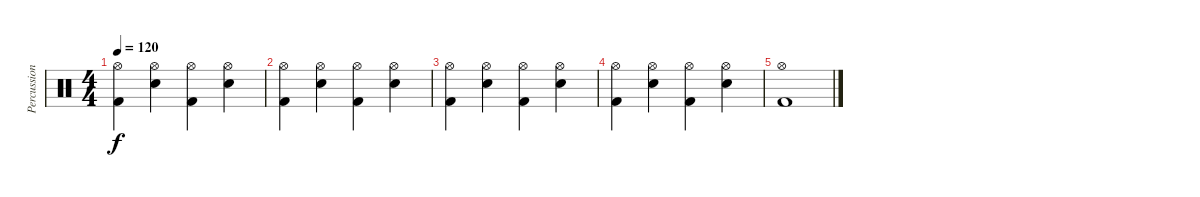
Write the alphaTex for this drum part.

\track ("Percussions" "Percussion") {instrument percussion}
\staff {score}
\articulation defaults
\ts (4 4)
\tempo 120
\clef neutral
\ks c
("Hi-Hat (open)" "Kick (hit) 2").4{dy f} ("Hi-Hat (open)" "Electric Snare (hit)").4 ("Hi-Hat (open)" "Kick (hit) 2").4 ("Hi-Hat (open)" "Electric Snare (hit)").4 |
("Hi-Hat (open)" "Kick (hit) 2").4 ("Hi-Hat (open)" "Electric Snare (hit)").4 ("Hi-Hat (open)" "Kick (hit) 2").4 ("Hi-Hat (open)" "Electric Snare (hit)").4 |
("Hi-Hat (open)" "Kick (hit) 2").4 ("Hi-Hat (open)" "Electric Snare (hit)").4 ("Hi-Hat (open)" "Kick (hit) 2").4 ("Hi-Hat (open)" "Electric Snare (hit)").4 |
("Hi-Hat (open)" "Kick (hit) 2").4 ("Hi-Hat (open)" "Electric Snare (hit)").4 ("Hi-Hat (open)" "Kick (hit) 2").4 ("Hi-Hat (open)" "Electric Snare (hit)").4 |
("Hi-Hat (open)" "Kick (hit) 2").1
